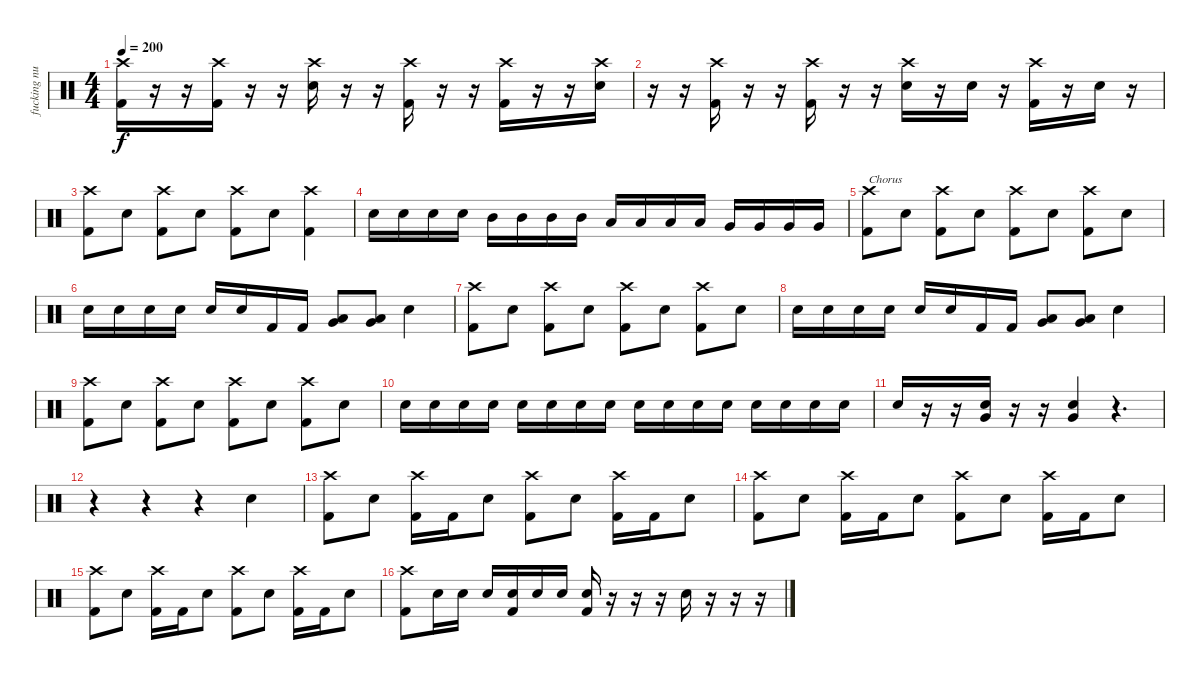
\track ("fucking nuts." "fucking nu") {instrument percussion}
\staff {score}
\articulation defaults
\ts (4 4)
\tempo 200
\clef neutral
\ks c
("Crash high (hit)" "Kick (hit) 2").16{dy f} r.16 r.16 ("Crash high (hit)" "Kick (hit) 2").16 r.16 r.16 ("Crash high (hit)" "Electric Snare (hit)").16 r.16 r.16 ("Crash high (hit)" "Kick (hit) 2").16 r.16 r.16 ("Crash high (hit)" "Kick (hit) 2").16 r.16 r.16 ("Crash high (hit)" "Electric Snare (hit)").16 |
r.16 r.16 ("Crash high (hit)" "Kick (hit) 2").16 r.16 r.16 ("Crash high (hit)" "Kick (hit) 2").16 r.16 r.16 ("Crash high (hit)" "Electric Snare (hit)").16 r.16 "Electric Snare (hit)".16 r.16 ("Crash high (hit)" "Kick (hit) 2").16 r.16 "Electric Snare (hit)".16 r.16 |
("Crash high (hit)" "Kick (hit) 2").8 "Electric Snare (hit)".8 ("Crash high (hit)" "Kick (hit) 2").8 "Electric Snare (hit)".8 ("Crash high (hit)" "Kick (hit) 2").8 "Electric Snare (hit)".8 ("Crash high (hit)" "Kick (hit) 2").4 |
"Electric Snare (hit)".16 "Electric Snare (hit)".16 "Electric Snare (hit)".16 "Electric Snare (hit)".16 "Mid Tom (hit)".16 "Mid Tom (hit)".16 "Mid Tom (hit)".16 "Mid Tom (hit)".16 "Low Tom (hit)".16 "Low Tom (hit)".16 "Low Tom (hit)".16 "Low Tom (hit)".16 "Very Low Tom (hit)".16 "Very Low Tom (hit)".16 "Very Low Tom (hit)".16 "Very Low Tom (hit)".16 |
("Crash high (hit)" "Kick (hit) 2").8{txt "Chorus"} "Electric Snare (hit)".8 ("Crash high (hit)" "Kick (hit) 2").8 "Electric Snare (hit)".8 ("Crash high (hit)" "Kick (hit) 2").8 "Electric Snare (hit)".8 ("Crash high (hit)" "Kick (hit) 2").8 "Electric Snare (hit)".8 |
"Electric Snare (hit)".16 "Electric Snare (hit)".16 "Electric Snare (hit)".16 "Electric Snare (hit)".16 "Electric Snare (hit)".16 "Electric Snare (hit)".16 "Kick (hit) 2".16 "Kick (hit) 2".16 ("Low Tom (hit)" "Very Low Tom (hit)").8 ("Low Tom (hit)" "Very Low Tom (hit)").8 "Electric Snare (hit)".4 |
("Crash high (hit)" "Kick (hit) 2").8 "Electric Snare (hit)".8 ("Crash high (hit)" "Kick (hit) 2").8 "Electric Snare (hit)".8 ("Crash high (hit)" "Kick (hit) 2").8 "Electric Snare (hit)".8 ("Crash high (hit)" "Kick (hit) 2").8 "Electric Snare (hit)".8 |
"Electric Snare (hit)".16 "Electric Snare (hit)".16 "Electric Snare (hit)".16 "Electric Snare (hit)".16 "Electric Snare (hit)".16 "Electric Snare (hit)".16 "Kick (hit) 2".16 "Kick (hit) 2".16 ("Low Tom (hit)" "Very Low Tom (hit)").8 ("Low Tom (hit)" "Very Low Tom (hit)").8 "Electric Snare (hit)".4 |
("Crash high (hit)" "Kick (hit) 2").8 "Electric Snare (hit)".8 ("Crash high (hit)" "Kick (hit) 2").8 "Electric Snare (hit)".8 ("Crash high (hit)" "Kick (hit) 2").8 "Electric Snare (hit)".8 ("Crash high (hit)" "Kick (hit) 2").8 "Electric Snare (hit)".8 |
"Electric Snare (hit)".16 "Electric Snare (hit)".16 "Electric Snare (hit)".16 "Electric Snare (hit)".16 "Electric Snare (hit)".16 "Electric Snare (hit)".16 "Electric Snare (hit)".16 "Electric Snare (hit)".16 "Electric Snare (hit)".16 "Electric Snare (hit)".16 "Electric Snare (hit)".16 "Electric Snare (hit)".16 "Electric Snare (hit)".16 "Electric Snare (hit)".16 "Electric Snare (hit)".16 "Electric Snare (hit)".16 |
"Electric Snare (hit)".16 r.16 r.16 ("Electric Snare (hit)" "Very Low Tom (hit)").16 r.16 r.16 ("Electric Snare (hit)" "Very Low Tom (hit)").4 r.4{d} |
r.4 r.4 r.4 "Electric Snare (hit)".4 |
("Crash high (hit)" "Kick (hit) 2").8 "Electric Snare (hit)".8 ("Crash high (hit)" "Kick (hit) 2").16 "Kick (hit) 2".16 "Electric Snare (hit)".8 ("Crash high (hit)" "Kick (hit) 2").8 "Electric Snare (hit)".8 ("Crash high (hit)" "Kick (hit) 2").16 "Kick (hit) 2".16 "Electric Snare (hit)".8 |
("Crash high (hit)" "Kick (hit) 2").8 "Electric Snare (hit)".8 ("Crash high (hit)" "Kick (hit) 2").16 "Kick (hit) 2".16 "Electric Snare (hit)".8 ("Crash high (hit)" "Kick (hit) 2").8 "Electric Snare (hit)".8 ("Crash high (hit)" "Kick (hit) 2").16 "Kick (hit) 2".16 "Electric Snare (hit)".8 |
("Crash high (hit)" "Kick (hit) 2").8 "Electric Snare (hit)".8 ("Crash high (hit)" "Kick (hit) 2").16 "Kick (hit) 2".16 "Electric Snare (hit)".8 ("Crash high (hit)" "Kick (hit) 2").8 "Electric Snare (hit)".8 ("Crash high (hit)" "Kick (hit) 2").16 "Kick (hit) 2".16 "Electric Snare (hit)".8 |
("Crash high (hit)" "Kick (hit) 2").8 "Electric Snare (hit)".16 "Electric Snare (hit)".16 "Electric Snare (hit)".16 ("Electric Snare (hit)" "Kick (hit) 2").16 "Electric Snare (hit)".16 "Electric Snare (hit)".16 ("Electric Snare (hit)" "Kick (hit) 2").16 r.16 r.16 r.16 "Electric Snare (hit)".16 r.16 r.16 r.16
